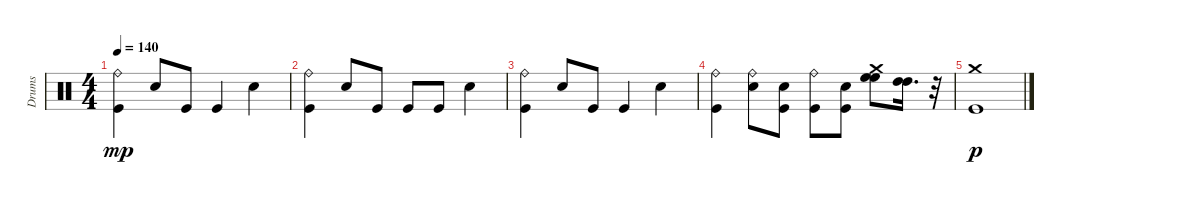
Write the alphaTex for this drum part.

\track ("Drums" "Drums") {instrument percussion}
\staff {score}
\articulation defaults
\ts (4 4)
\tempo 140
\clef neutral
\ks c
("Ride (bell)" "Kick (hit)").4{dy mp} "Electric Snare (hit)".8 "Kick (hit)".8 "Kick (hit)".4 "Electric Snare (hit)".4 |
("Ride (bell)" "Kick (hit)").4 "Electric Snare (hit)".8 "Kick (hit)".8 "Kick (hit)".8 "Kick (hit)".8 "Electric Snare (hit)".4 |
("Ride (bell)" "Kick (hit)").4 "Electric Snare (hit)".8 "Kick (hit)".8 "Kick (hit)".4 "Electric Snare (hit)".4 |
("Ride (bell)" "Kick (hit)").4 ("Ride (bell)" "Electric Snare (hit)").8 ("Electric Snare (hit)" "Kick (hit)").8 ("Ride (bell)" "Kick (hit)").8 ("Electric Snare (hit)" "Kick (hit)").8 ("Crash medium (hit)" "High Floor Tom (hit)" "High Floor Tom (hit)").8 ("High Tom (hit)" "High Tom (hit)").16{d} r.32 |
("Crash medium (hit)" "Kick (hit)").1{dy p}
